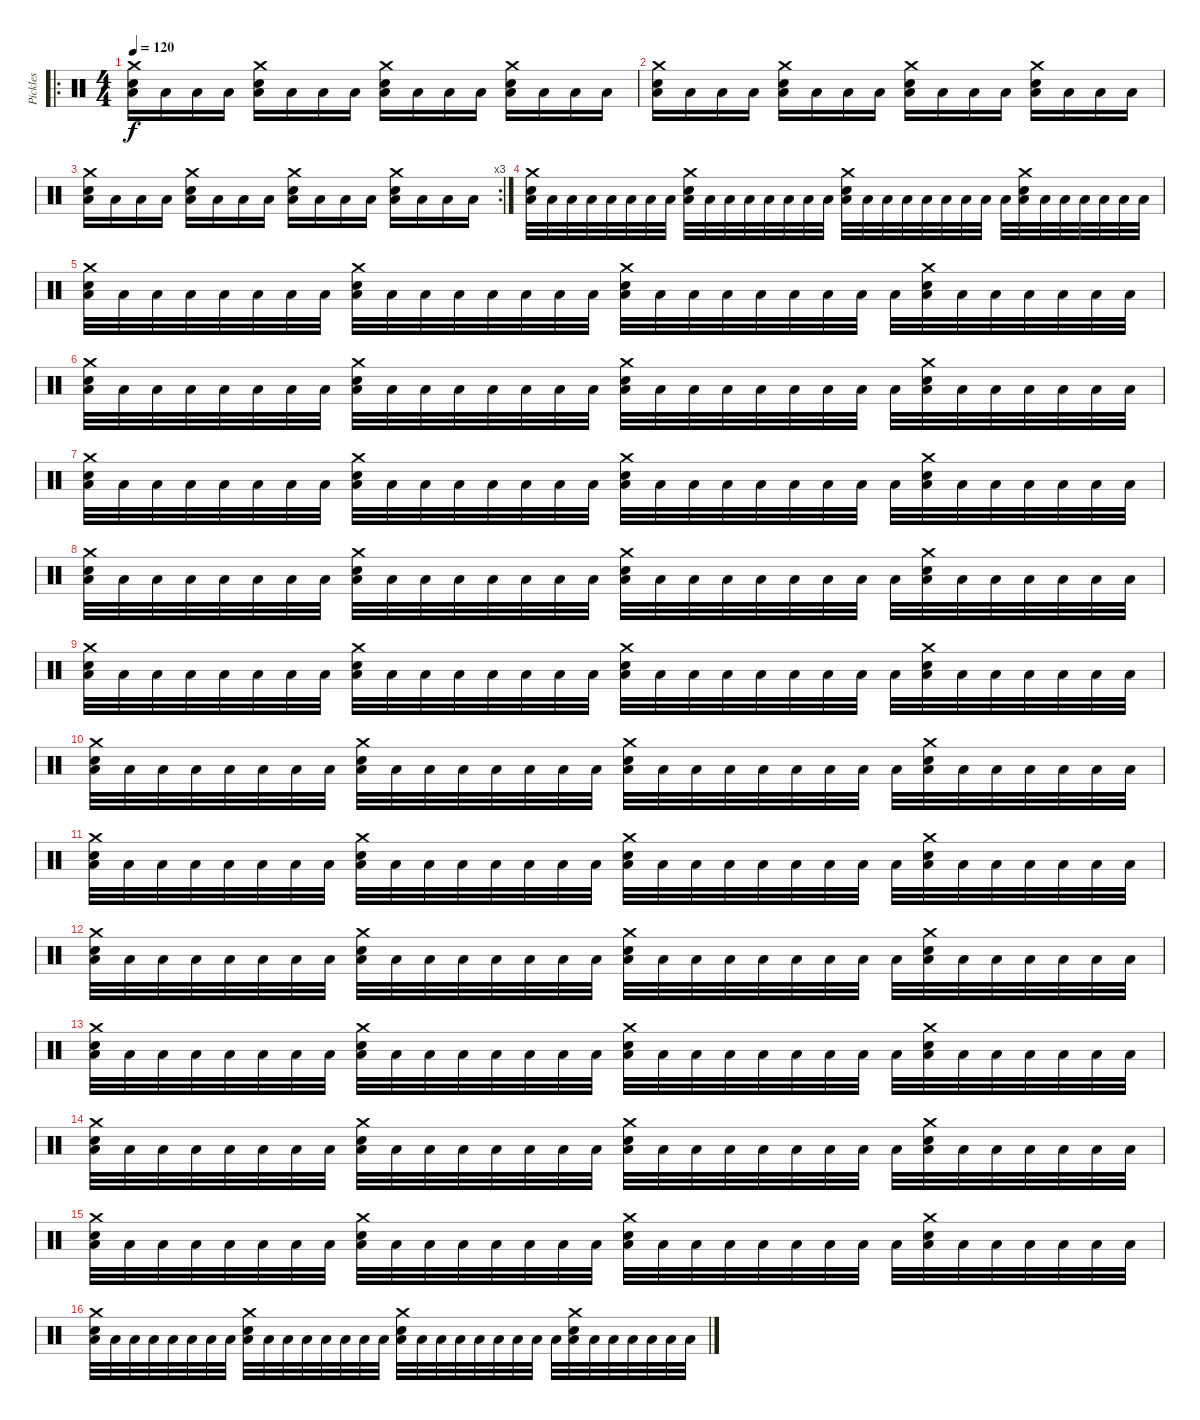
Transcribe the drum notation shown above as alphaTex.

\track ("Pickles" "Pickles") {instrument percussion}
\staff {score}
\articulation defaults
\ro
\ts (4 4)
\tempo 120
\clef neutral
\ks c
("Crash medium (hit)" "Snare (hit) 2" "Low Tom (hit)").16{dy f} "Low Tom (hit)".16 "Low Tom (hit)".16 "Low Tom (hit)".16 ("Crash medium (hit)" "Snare (hit) 2" "Low Tom (hit)").16 "Low Tom (hit)".16 "Low Tom (hit)".16 "Low Tom (hit)".16 ("Crash medium (hit)" "Snare (hit) 2" "Low Tom (hit)").16 "Low Tom (hit)".16 "Low Tom (hit)".16 "Low Tom (hit)".16 ("Crash medium (hit)" "Snare (hit) 2" "Low Tom (hit)").16 "Low Tom (hit)".16 "Low Tom (hit)".16 "Low Tom (hit)".16 |
("Crash medium (hit)" "Snare (hit) 2" "Low Tom (hit)").16 "Low Tom (hit)".16 "Low Tom (hit)".16 "Low Tom (hit)".16 ("Crash medium (hit)" "Snare (hit) 2" "Low Tom (hit)").16 "Low Tom (hit)".16 "Low Tom (hit)".16 "Low Tom (hit)".16 ("Crash medium (hit)" "Snare (hit) 2" "Low Tom (hit)").16 "Low Tom (hit)".16 "Low Tom (hit)".16 "Low Tom (hit)".16 ("Crash medium (hit)" "Snare (hit) 2" "Low Tom (hit)").16 "Low Tom (hit)".16 "Low Tom (hit)".16 "Low Tom (hit)".16 |
\rc 3
("Crash medium (hit)" "Snare (hit) 2" "Low Tom (hit)").16 "Low Tom (hit)".16 "Low Tom (hit)".16 "Low Tom (hit)".16 ("Crash medium (hit)" "Snare (hit) 2" "Low Tom (hit)").16 "Low Tom (hit)".16 "Low Tom (hit)".16 "Low Tom (hit)".16 ("Crash medium (hit)" "Snare (hit) 2" "Low Tom (hit)").16 "Low Tom (hit)".16 "Low Tom (hit)".16 "Low Tom (hit)".16 ("Crash medium (hit)" "Snare (hit) 2" "Low Tom (hit)").16 "Low Tom (hit)".16 "Low Tom (hit)".16 "Low Tom (hit)".16 |
("Crash medium (hit)" "Snare (hit) 2" "Low Tom (hit)").32 "Low Tom (hit)".32 "Low Tom (hit)".32 "Low Tom (hit)".32 "Low Tom (hit)".32 "Low Tom (hit)".32 "Low Tom (hit)".32 "Low Tom (hit)".32 ("Crash medium (hit)" "Snare (hit) 2" "Low Tom (hit)").32 "Low Tom (hit)".32 "Low Tom (hit)".32 "Low Tom (hit)".32 "Low Tom (hit)".32 "Low Tom (hit)".32 "Low Tom (hit)".32 "Low Tom (hit)".32 ("Crash medium (hit)" "Snare (hit) 2" "Low Tom (hit)").32 "Low Tom (hit)".32 "Low Tom (hit)".32 "Low Tom (hit)".32 "Low Tom (hit)".32 "Low Tom (hit)".32 "Low Tom (hit)".32 "Low Tom (hit)".32 "Low Tom (hit)".32 ("Crash medium (hit)" "Snare (hit) 2" "Low Tom (hit)").32 "Low Tom (hit)".32 "Low Tom (hit)".32 "Low Tom (hit)".32 "Low Tom (hit)".32 "Low Tom (hit)".32 "Low Tom (hit)".32 |
("Crash medium (hit)" "Snare (hit) 2" "Low Tom (hit)").32 "Low Tom (hit)".32 "Low Tom (hit)".32 "Low Tom (hit)".32 "Low Tom (hit)".32 "Low Tom (hit)".32 "Low Tom (hit)".32 "Low Tom (hit)".32 ("Crash medium (hit)" "Snare (hit) 2" "Low Tom (hit)").32 "Low Tom (hit)".32 "Low Tom (hit)".32 "Low Tom (hit)".32 "Low Tom (hit)".32 "Low Tom (hit)".32 "Low Tom (hit)".32 "Low Tom (hit)".32 ("Crash medium (hit)" "Snare (hit) 2" "Low Tom (hit)").32 "Low Tom (hit)".32 "Low Tom (hit)".32 "Low Tom (hit)".32 "Low Tom (hit)".32 "Low Tom (hit)".32 "Low Tom (hit)".32 "Low Tom (hit)".32 "Low Tom (hit)".32 ("Crash medium (hit)" "Snare (hit) 2" "Low Tom (hit)").32 "Low Tom (hit)".32 "Low Tom (hit)".32 "Low Tom (hit)".32 "Low Tom (hit)".32 "Low Tom (hit)".32 "Low Tom (hit)".32 |
("Crash medium (hit)" "Snare (hit) 2" "Low Tom (hit)").32 "Low Tom (hit)".32 "Low Tom (hit)".32 "Low Tom (hit)".32 "Low Tom (hit)".32 "Low Tom (hit)".32 "Low Tom (hit)".32 "Low Tom (hit)".32 ("Crash medium (hit)" "Snare (hit) 2" "Low Tom (hit)").32 "Low Tom (hit)".32 "Low Tom (hit)".32 "Low Tom (hit)".32 "Low Tom (hit)".32 "Low Tom (hit)".32 "Low Tom (hit)".32 "Low Tom (hit)".32 ("Crash medium (hit)" "Snare (hit) 2" "Low Tom (hit)").32 "Low Tom (hit)".32 "Low Tom (hit)".32 "Low Tom (hit)".32 "Low Tom (hit)".32 "Low Tom (hit)".32 "Low Tom (hit)".32 "Low Tom (hit)".32 "Low Tom (hit)".32 ("Crash medium (hit)" "Snare (hit) 2" "Low Tom (hit)").32 "Low Tom (hit)".32 "Low Tom (hit)".32 "Low Tom (hit)".32 "Low Tom (hit)".32 "Low Tom (hit)".32 "Low Tom (hit)".32 |
("Crash medium (hit)" "Snare (hit) 2" "Low Tom (hit)").32 "Low Tom (hit)".32 "Low Tom (hit)".32 "Low Tom (hit)".32 "Low Tom (hit)".32 "Low Tom (hit)".32 "Low Tom (hit)".32 "Low Tom (hit)".32 ("Crash medium (hit)" "Snare (hit) 2" "Low Tom (hit)").32 "Low Tom (hit)".32 "Low Tom (hit)".32 "Low Tom (hit)".32 "Low Tom (hit)".32 "Low Tom (hit)".32 "Low Tom (hit)".32 "Low Tom (hit)".32 ("Crash medium (hit)" "Snare (hit) 2" "Low Tom (hit)").32 "Low Tom (hit)".32 "Low Tom (hit)".32 "Low Tom (hit)".32 "Low Tom (hit)".32 "Low Tom (hit)".32 "Low Tom (hit)".32 "Low Tom (hit)".32 "Low Tom (hit)".32 ("Crash medium (hit)" "Snare (hit) 2" "Low Tom (hit)").32 "Low Tom (hit)".32 "Low Tom (hit)".32 "Low Tom (hit)".32 "Low Tom (hit)".32 "Low Tom (hit)".32 "Low Tom (hit)".32 |
("Crash medium (hit)" "Snare (hit) 2" "Low Tom (hit)").32 "Low Tom (hit)".32 "Low Tom (hit)".32 "Low Tom (hit)".32 "Low Tom (hit)".32 "Low Tom (hit)".32 "Low Tom (hit)".32 "Low Tom (hit)".32 ("Crash medium (hit)" "Snare (hit) 2" "Low Tom (hit)").32 "Low Tom (hit)".32 "Low Tom (hit)".32 "Low Tom (hit)".32 "Low Tom (hit)".32 "Low Tom (hit)".32 "Low Tom (hit)".32 "Low Tom (hit)".32 ("Crash medium (hit)" "Snare (hit) 2" "Low Tom (hit)").32 "Low Tom (hit)".32 "Low Tom (hit)".32 "Low Tom (hit)".32 "Low Tom (hit)".32 "Low Tom (hit)".32 "Low Tom (hit)".32 "Low Tom (hit)".32 "Low Tom (hit)".32 ("Crash medium (hit)" "Snare (hit) 2" "Low Tom (hit)").32 "Low Tom (hit)".32 "Low Tom (hit)".32 "Low Tom (hit)".32 "Low Tom (hit)".32 "Low Tom (hit)".32 "Low Tom (hit)".32 |
("Crash medium (hit)" "Snare (hit) 2" "Low Tom (hit)").32 "Low Tom (hit)".32 "Low Tom (hit)".32 "Low Tom (hit)".32 "Low Tom (hit)".32 "Low Tom (hit)".32 "Low Tom (hit)".32 "Low Tom (hit)".32 ("Crash medium (hit)" "Snare (hit) 2" "Low Tom (hit)").32 "Low Tom (hit)".32 "Low Tom (hit)".32 "Low Tom (hit)".32 "Low Tom (hit)".32 "Low Tom (hit)".32 "Low Tom (hit)".32 "Low Tom (hit)".32 ("Crash medium (hit)" "Snare (hit) 2" "Low Tom (hit)").32 "Low Tom (hit)".32 "Low Tom (hit)".32 "Low Tom (hit)".32 "Low Tom (hit)".32 "Low Tom (hit)".32 "Low Tom (hit)".32 "Low Tom (hit)".32 "Low Tom (hit)".32 ("Crash medium (hit)" "Snare (hit) 2" "Low Tom (hit)").32 "Low Tom (hit)".32 "Low Tom (hit)".32 "Low Tom (hit)".32 "Low Tom (hit)".32 "Low Tom (hit)".32 "Low Tom (hit)".32 |
("Crash medium (hit)" "Snare (hit) 2" "Low Tom (hit)").32 "Low Tom (hit)".32 "Low Tom (hit)".32 "Low Tom (hit)".32 "Low Tom (hit)".32 "Low Tom (hit)".32 "Low Tom (hit)".32 "Low Tom (hit)".32 ("Crash medium (hit)" "Snare (hit) 2" "Low Tom (hit)").32 "Low Tom (hit)".32 "Low Tom (hit)".32 "Low Tom (hit)".32 "Low Tom (hit)".32 "Low Tom (hit)".32 "Low Tom (hit)".32 "Low Tom (hit)".32 ("Crash medium (hit)" "Snare (hit) 2" "Low Tom (hit)").32 "Low Tom (hit)".32 "Low Tom (hit)".32 "Low Tom (hit)".32 "Low Tom (hit)".32 "Low Tom (hit)".32 "Low Tom (hit)".32 "Low Tom (hit)".32 "Low Tom (hit)".32 ("Crash medium (hit)" "Snare (hit) 2" "Low Tom (hit)").32 "Low Tom (hit)".32 "Low Tom (hit)".32 "Low Tom (hit)".32 "Low Tom (hit)".32 "Low Tom (hit)".32 "Low Tom (hit)".32 |
("Crash medium (hit)" "Snare (hit) 2" "Low Tom (hit)").32 "Low Tom (hit)".32 "Low Tom (hit)".32 "Low Tom (hit)".32 "Low Tom (hit)".32 "Low Tom (hit)".32 "Low Tom (hit)".32 "Low Tom (hit)".32 ("Crash medium (hit)" "Snare (hit) 2" "Low Tom (hit)").32 "Low Tom (hit)".32 "Low Tom (hit)".32 "Low Tom (hit)".32 "Low Tom (hit)".32 "Low Tom (hit)".32 "Low Tom (hit)".32 "Low Tom (hit)".32 ("Crash medium (hit)" "Snare (hit) 2" "Low Tom (hit)").32 "Low Tom (hit)".32 "Low Tom (hit)".32 "Low Tom (hit)".32 "Low Tom (hit)".32 "Low Tom (hit)".32 "Low Tom (hit)".32 "Low Tom (hit)".32 "Low Tom (hit)".32 ("Crash medium (hit)" "Snare (hit) 2" "Low Tom (hit)").32 "Low Tom (hit)".32 "Low Tom (hit)".32 "Low Tom (hit)".32 "Low Tom (hit)".32 "Low Tom (hit)".32 "Low Tom (hit)".32 |
("Crash medium (hit)" "Snare (hit) 2" "Low Tom (hit)").32 "Low Tom (hit)".32 "Low Tom (hit)".32 "Low Tom (hit)".32 "Low Tom (hit)".32 "Low Tom (hit)".32 "Low Tom (hit)".32 "Low Tom (hit)".32 ("Crash medium (hit)" "Snare (hit) 2" "Low Tom (hit)").32 "Low Tom (hit)".32 "Low Tom (hit)".32 "Low Tom (hit)".32 "Low Tom (hit)".32 "Low Tom (hit)".32 "Low Tom (hit)".32 "Low Tom (hit)".32 ("Crash medium (hit)" "Snare (hit) 2" "Low Tom (hit)").32 "Low Tom (hit)".32 "Low Tom (hit)".32 "Low Tom (hit)".32 "Low Tom (hit)".32 "Low Tom (hit)".32 "Low Tom (hit)".32 "Low Tom (hit)".32 "Low Tom (hit)".32 ("Crash medium (hit)" "Snare (hit) 2" "Low Tom (hit)").32 "Low Tom (hit)".32 "Low Tom (hit)".32 "Low Tom (hit)".32 "Low Tom (hit)".32 "Low Tom (hit)".32 "Low Tom (hit)".32 |
("Crash medium (hit)" "Snare (hit) 2" "Low Tom (hit)").32 "Low Tom (hit)".32 "Low Tom (hit)".32 "Low Tom (hit)".32 "Low Tom (hit)".32 "Low Tom (hit)".32 "Low Tom (hit)".32 "Low Tom (hit)".32 ("Crash medium (hit)" "Snare (hit) 2" "Low Tom (hit)").32 "Low Tom (hit)".32 "Low Tom (hit)".32 "Low Tom (hit)".32 "Low Tom (hit)".32 "Low Tom (hit)".32 "Low Tom (hit)".32 "Low Tom (hit)".32 ("Crash medium (hit)" "Snare (hit) 2" "Low Tom (hit)").32 "Low Tom (hit)".32 "Low Tom (hit)".32 "Low Tom (hit)".32 "Low Tom (hit)".32 "Low Tom (hit)".32 "Low Tom (hit)".32 "Low Tom (hit)".32 "Low Tom (hit)".32 ("Crash medium (hit)" "Snare (hit) 2" "Low Tom (hit)").32 "Low Tom (hit)".32 "Low Tom (hit)".32 "Low Tom (hit)".32 "Low Tom (hit)".32 "Low Tom (hit)".32 "Low Tom (hit)".32 |
("Crash medium (hit)" "Snare (hit) 2" "Low Tom (hit)").32 "Low Tom (hit)".32 "Low Tom (hit)".32 "Low Tom (hit)".32 "Low Tom (hit)".32 "Low Tom (hit)".32 "Low Tom (hit)".32 "Low Tom (hit)".32 ("Crash medium (hit)" "Snare (hit) 2" "Low Tom (hit)").32 "Low Tom (hit)".32 "Low Tom (hit)".32 "Low Tom (hit)".32 "Low Tom (hit)".32 "Low Tom (hit)".32 "Low Tom (hit)".32 "Low Tom (hit)".32 ("Crash medium (hit)" "Snare (hit) 2" "Low Tom (hit)").32 "Low Tom (hit)".32 "Low Tom (hit)".32 "Low Tom (hit)".32 "Low Tom (hit)".32 "Low Tom (hit)".32 "Low Tom (hit)".32 "Low Tom (hit)".32 "Low Tom (hit)".32 ("Crash medium (hit)" "Snare (hit) 2" "Low Tom (hit)").32 "Low Tom (hit)".32 "Low Tom (hit)".32 "Low Tom (hit)".32 "Low Tom (hit)".32 "Low Tom (hit)".32 "Low Tom (hit)".32 |
("Crash medium (hit)" "Snare (hit) 2" "Low Tom (hit)").32 "Low Tom (hit)".32 "Low Tom (hit)".32 "Low Tom (hit)".32 "Low Tom (hit)".32 "Low Tom (hit)".32 "Low Tom (hit)".32 "Low Tom (hit)".32 ("Crash medium (hit)" "Snare (hit) 2" "Low Tom (hit)").32 "Low Tom (hit)".32 "Low Tom (hit)".32 "Low Tom (hit)".32 "Low Tom (hit)".32 "Low Tom (hit)".32 "Low Tom (hit)".32 "Low Tom (hit)".32 ("Crash medium (hit)" "Snare (hit) 2" "Low Tom (hit)").32 "Low Tom (hit)".32 "Low Tom (hit)".32 "Low Tom (hit)".32 "Low Tom (hit)".32 "Low Tom (hit)".32 "Low Tom (hit)".32 "Low Tom (hit)".32 "Low Tom (hit)".32 ("Crash medium (hit)" "Snare (hit) 2" "Low Tom (hit)").32 "Low Tom (hit)".32 "Low Tom (hit)".32 "Low Tom (hit)".32 "Low Tom (hit)".32 "Low Tom (hit)".32 "Low Tom (hit)".32 |
("Crash medium (hit)" "Snare (hit) 2" "Low Tom (hit)").32 "Low Tom (hit)".32 "Low Tom (hit)".32 "Low Tom (hit)".32 "Low Tom (hit)".32 "Low Tom (hit)".32 "Low Tom (hit)".32 "Low Tom (hit)".32 ("Crash medium (hit)" "Snare (hit) 2" "Low Tom (hit)").32 "Low Tom (hit)".32 "Low Tom (hit)".32 "Low Tom (hit)".32 "Low Tom (hit)".32 "Low Tom (hit)".32 "Low Tom (hit)".32 "Low Tom (hit)".32 ("Crash medium (hit)" "Snare (hit) 2" "Low Tom (hit)").32 "Low Tom (hit)".32 "Low Tom (hit)".32 "Low Tom (hit)".32 "Low Tom (hit)".32 "Low Tom (hit)".32 "Low Tom (hit)".32 "Low Tom (hit)".32 "Low Tom (hit)".32 ("Crash medium (hit)" "Snare (hit) 2" "Low Tom (hit)").32 "Low Tom (hit)".32 "Low Tom (hit)".32 "Low Tom (hit)".32 "Low Tom (hit)".32 "Low Tom (hit)".32 "Low Tom (hit)".32
